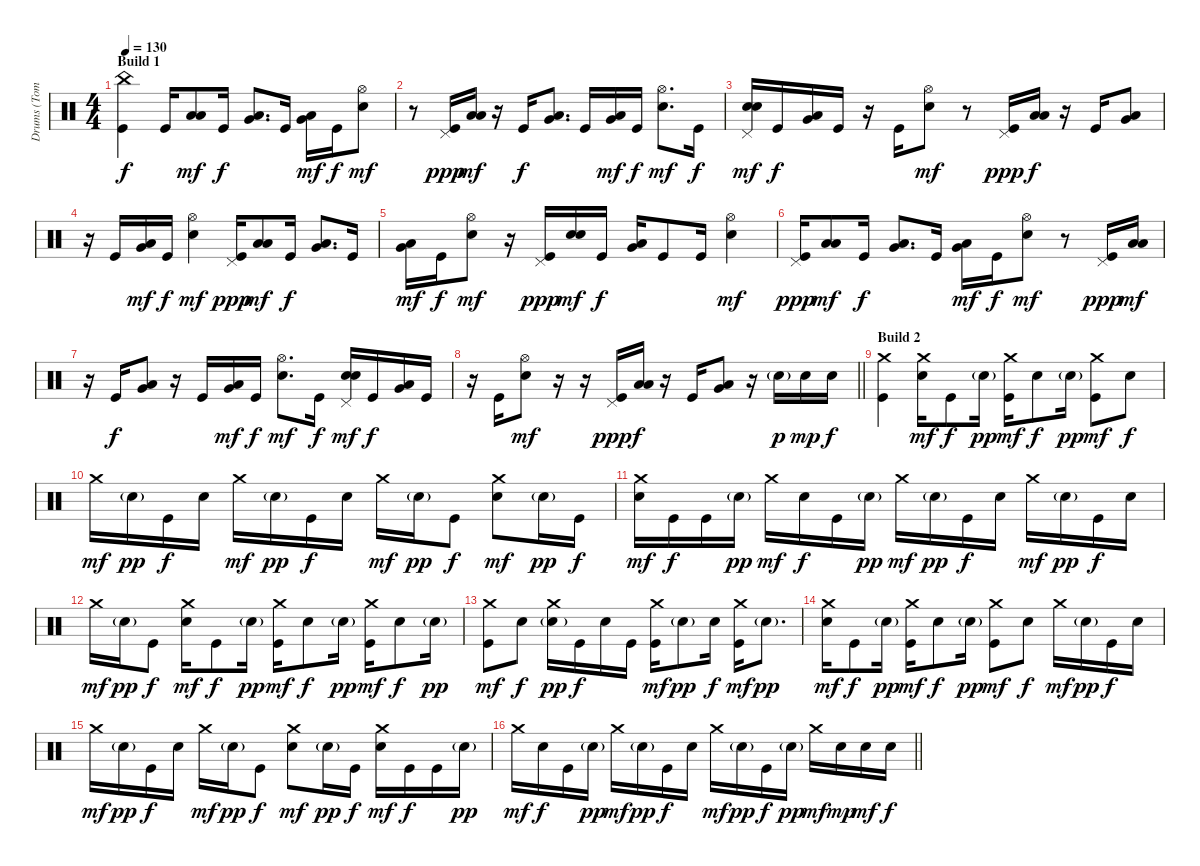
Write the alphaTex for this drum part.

\track ("Drums (Tomas Haake)" "Drums (Tom") {instrument percussion}
\staff {score}
\articulation defaults
\ts (4 4)
\section ("" "Build 1")
\tempo 130
\clef neutral
\ks c
("China (hit)" "Kick (hit)").4{dy f} "Kick (hit)".16 ("Low Tom (hit)" "Low Floor Tom (hit)").8{bd 60 dy mf} "Kick (hit)".16{dy f} ("Very Low Tom (hit)" "Low Floor Tom (hit)").8{d bd 60} "Kick (hit)".16 ("Very Low Tom (hit)" "Low Floor Tom (hit)").16{bd 60 dy mf} "Kick (hit)".16{dy f} ("Hi-Hat (open)" "Electric Snare (hit)").8{dy mf} |
r.8 ("Pedal Hi-Hat (hit)" "Kick (hit)").16{dy ppp} ("Low Tom (hit)" "Low Floor Tom (hit)").16{bd 60 dy mf} r.16 "Kick (hit)".16{dy f} ("Very Low Tom (hit)" "Low Floor Tom (hit)").8{d bd 60} "Kick (hit)".16 ("Very Low Tom (hit)" "Low Floor Tom (hit)").16{bd 60 dy mf} "Kick (hit)".16{dy f} ("Hi-Hat (open)" "Electric Snare (hit)").8{d dy mf} "Kick (hit)".16{dy f} |
("Pedal Hi-Hat (hit)" "Electric Snare (hit)" "Electric Snare (hit)").16{bd 60 dy mf} "Kick (hit)".16{dy f} ("Very Low Tom (hit)" "Low Floor Tom (hit)").16{bd 60} "Kick (hit)".16 r.16 "Kick (hit)".16 ("Hi-Hat (open)" "Electric Snare (hit)").8{dy mf} r.8 ("Pedal Hi-Hat (hit)" "Kick (hit)").16{dy ppp} ("Low Tom (hit)" "Low Floor Tom (hit)").16{bd 60 dy f} r.16 "Kick (hit)".16 ("Very Low Tom (hit)" "Low Floor Tom (hit)").8{bd 60} |
r.16 "Kick (hit)".16 ("Very Low Tom (hit)" "Low Floor Tom (hit)").16{bd 60 dy mf} "Kick (hit)".16{dy f} ("Hi-Hat (open)" "Electric Snare (hit)").4{dy mf} ("Pedal Hi-Hat (hit)" "Kick (hit)").16{dy ppp} ("Low Tom (hit)" "Low Floor Tom (hit)").8{bd 60 dy mf} "Kick (hit)".16{dy f} ("Very Low Tom (hit)" "Low Floor Tom (hit)").8{d bd 60} "Kick (hit)".16 |
("Very Low Tom (hit)" "Low Floor Tom (hit)").16{bd 60 dy mf} "Kick (hit)".16{dy f} ("Hi-Hat (open)" "Electric Snare (hit)").8{dy mf} r.16 ("Pedal Hi-Hat (hit)" "Kick (hit)").16{dy ppp} ("Electric Snare (hit)" "Electric Snare (hit)").16{bd 60 dy mf} "Kick (hit)".16{dy f} ("Very Low Tom (hit)" "Low Floor Tom (hit)").16{bd 60} "Kick (hit)".8 "Kick (hit)".16 ("Hi-Hat (open)" "Electric Snare (hit)").4{dy mf} |
("Pedal Hi-Hat (hit)" "Kick (hit)").16{dy ppp} ("Low Tom (hit)" "Low Floor Tom (hit)").8{bd 60 dy mf} "Kick (hit)".16{dy f} ("Very Low Tom (hit)" "Low Floor Tom (hit)").8{d bd 60} "Kick (hit)".16 ("Very Low Tom (hit)" "Low Floor Tom (hit)").16{bd 60 dy mf} "Kick (hit)".16{dy f} ("Hi-Hat (open)" "Electric Snare (hit)").8{dy mf} r.8 ("Pedal Hi-Hat (hit)" "Kick (hit)").16{dy ppp} ("Low Tom (hit)" "Low Floor Tom (hit)").16{bd 60 dy mf} |
r.16 "Kick (hit)".16{dy f} ("Very Low Tom (hit)" "Low Floor Tom (hit)").8{bd 60} r.16 "Kick (hit)".16 ("Very Low Tom (hit)" "Low Floor Tom (hit)").16{bd 60 dy mf} "Kick (hit)".16{dy f} ("Hi-Hat (open)" "Electric Snare (hit)").8{d dy mf} "Kick (hit)".16{dy f} ("Pedal Hi-Hat (hit)" "Electric Snare (hit)" "Electric Snare (hit)").16{bd 60 dy mf} "Kick (hit)".16{dy f} ("Very Low Tom (hit)" "Low Floor Tom (hit)").16{bd 60} "Kick (hit)".16 |
\barLineRight lightlight
r.16 "Kick (hit)".16 ("Hi-Hat (open)" "Electric Snare (hit)").8{dy mf} r.16 r.16 ("Pedal Hi-Hat (hit)" "Kick (hit)").16{dy ppp} ("Low Tom (hit)" "Low Floor Tom (hit)").16{bd 60 dy f} r.16 "Kick (hit)".16 ("Very Low Tom (hit)" "Low Floor Tom (hit)").8{bd 60} r.16 "Electric Snare (hit)"{g}.16{dy p} "Electric Snare (hit)".16{dy mp} "Electric Snare (hit)".16{dy f} |
\section ("" "Build 2")
("Crash medium (hit)" "Kick (hit)").4 ("Crash medium (hit)" "Electric Snare (hit)").16{dy mf} "Kick (hit)".8{dy f} "Electric Snare (hit)"{g}.16{dy pp} ("Crash medium (hit)" "Kick (hit)").16{dy mf} "Electric Snare (hit)".8{dy f} "Electric Snare (hit)"{g}.16{dy pp} ("Crash medium (hit)" "Kick (hit)").8{dy mf} "Electric Snare (hit)".8{dy f} |
"Crash medium (hit)".16{dy mf} "Electric Snare (hit)"{g}.16{dy pp} "Kick (hit)".16{dy f} "Electric Snare (hit)".16 "Crash medium (hit)".16{dy mf} "Electric Snare (hit)"{g}.16{dy pp} "Kick (hit)".16{dy f} "Electric Snare (hit)".16 "Crash medium (hit)".16{dy mf} "Electric Snare (hit)"{g}.16{dy pp} "Kick (hit)".8{dy f} ("Crash medium (hit)" "Electric Snare (hit)").8{dy mf} "Electric Snare (hit)"{g}.16{dy pp} "Kick (hit)".16{dy f} |
("Crash medium (hit)" "Electric Snare (hit)").16{dy mf} "Kick (hit)".16{dy f} "Kick (hit)".16 "Electric Snare (hit)"{g}.16{dy pp} "Crash medium (hit)".16{dy mf} "Electric Snare (hit)".16{dy f} "Kick (hit)".16 "Electric Snare (hit)"{g}.16{dy pp} "Crash medium (hit)".16{dy mf} "Electric Snare (hit)"{g}.16{dy pp} "Kick (hit)".16{dy f} "Electric Snare (hit)".16 "Crash medium (hit)".16{dy mf} "Electric Snare (hit)"{g}.16{dy pp} "Kick (hit)".16{dy f} "Electric Snare (hit)".16 |
"Crash medium (hit)".16{dy mf} "Electric Snare (hit)"{g}.16{dy pp} "Kick (hit)".8{dy f} ("Crash medium (hit)" "Electric Snare (hit)").16{dy mf} "Kick (hit)".8{dy f} "Electric Snare (hit)"{g}.16{dy pp} ("Crash medium (hit)" "Kick (hit)").16{dy mf} "Electric Snare (hit)".8{dy f} "Electric Snare (hit)"{g}.16{dy pp} ("Crash medium (hit)" "Kick (hit)").16{dy mf} "Electric Snare (hit)".8{dy f} "Electric Snare (hit)"{g}.16{dy pp} |
("Crash medium (hit)" "Kick (hit)").8{dy mf} "Electric Snare (hit)".8{dy f} ("Crash medium (hit)" "Electric Snare (hit)"{g}).16{dy pp} "Kick (hit)".16{dy f} "Electric Snare (hit)".16 "Kick (hit)".16 ("Crash medium (hit)" "Kick (hit)").16{dy mf} "Electric Snare (hit)"{g}.8{dy pp} "Electric Snare (hit)".16{dy f} ("Crash medium (hit)" "Kick (hit)").16{dy mf} "Electric Snare (hit)"{g}.8{d dy pp} |
("Crash medium (hit)" "Electric Snare (hit)").16{dy mf} "Kick (hit)".8{dy f} "Electric Snare (hit)"{g}.16{dy pp} ("Crash medium (hit)" "Kick (hit)").16{dy mf} "Electric Snare (hit)".8{dy f} "Electric Snare (hit)"{g}.16{dy pp} ("Crash medium (hit)" "Kick (hit)").8{dy mf} "Electric Snare (hit)".8{dy f} "Crash medium (hit)".16{dy mf} "Electric Snare (hit)"{g}.16{dy pp} "Kick (hit)".16{dy f} "Electric Snare (hit)".16 |
"Crash medium (hit)".16{dy mf} "Electric Snare (hit)"{g}.16{dy pp} "Kick (hit)".16{dy f} "Electric Snare (hit)".16 "Crash medium (hit)".16{dy mf} "Electric Snare (hit)"{g}.16{dy pp} "Kick (hit)".8{dy f} ("Crash medium (hit)" "Electric Snare (hit)").8{dy mf} "Electric Snare (hit)"{g}.16{dy pp} "Kick (hit)".16{dy f} ("Crash medium (hit)" "Electric Snare (hit)").16{dy mf} "Kick (hit)".16{dy f} "Kick (hit)".16 "Electric Snare (hit)"{g}.16{dy pp} |
\barLineRight lightlight "Crash medium (hit)".16{dy mf} "Electric Snare (hit)".16{dy f} "Kick (hit)".16 "Electric Snare (hit)"{g}.16{dy pp} "Crash medium (hit)".16{dy mf} "Electric Snare (hit)"{g}.16{dy pp} "Kick (hit)".16{dy f} "Electric Snare (hit)".16 "Crash medium (hit)".16{dy mf} "Electric Snare (hit)"{g}.16{dy pp} "Kick (hit)".16{dy f} "Electric Snare (hit)"{g}.16{dy pp} "Crash medium (hit)".16{dy mf} "Electric Snare (hit)".16{dy mp} "Electric Snare (hit)".16{dy mf} "Electric Snare (hit)".16{dy f}
